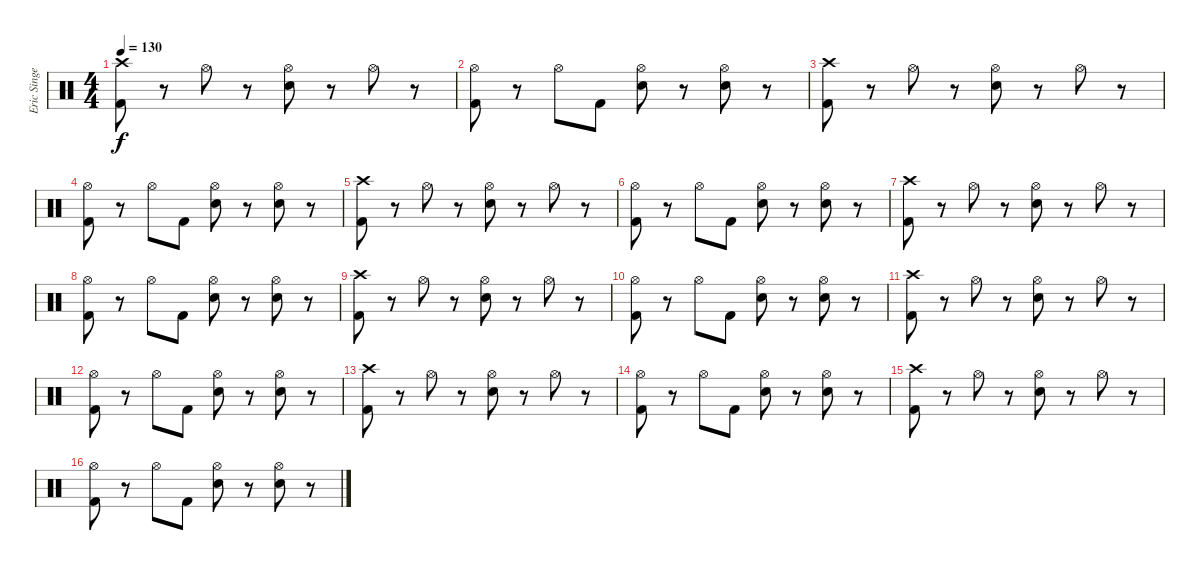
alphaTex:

\track ("Eric Singer" "Eric Singe") {instrument percussion}
\staff {score}
\articulation defaults
\ts (4 4)
\tempo 130
\clef neutral
\ks c
("Kick (hit) 2" "Crash high (hit)").8{dy f} r.8 "Hi-Hat (open)".8 r.8 ("Electric Snare (hit)" "Hi-Hat (open)").8 r.8 "Hi-Hat (open)".8 r.8 |
("Kick (hit) 2" "Hi-Hat (open)").8 r.8 "Hi-Hat (open)".8 "Kick (hit) 2".8 ("Electric Snare (hit)" "Hi-Hat (open)").8 r.8 ("Electric Snare (hit)" "Hi-Hat (open)").8 r.8 |
("Kick (hit) 2" "Crash high (hit)").8 r.8 "Hi-Hat (open)".8 r.8 ("Electric Snare (hit)" "Hi-Hat (open)").8 r.8 "Hi-Hat (open)".8 r.8 |
("Kick (hit) 2" "Hi-Hat (open)").8 r.8 "Hi-Hat (open)".8 "Kick (hit) 2".8 ("Electric Snare (hit)" "Hi-Hat (open)").8 r.8 ("Electric Snare (hit)" "Hi-Hat (open)").8 r.8 |
("Kick (hit) 2" "Crash high (hit)").8 r.8 "Hi-Hat (open)".8 r.8 ("Electric Snare (hit)" "Hi-Hat (open)").8 r.8 "Hi-Hat (open)".8 r.8 |
("Kick (hit) 2" "Hi-Hat (open)").8 r.8 "Hi-Hat (open)".8 "Kick (hit) 2".8 ("Electric Snare (hit)" "Hi-Hat (open)").8 r.8 ("Electric Snare (hit)" "Hi-Hat (open)").8 r.8 |
("Kick (hit) 2" "Crash high (hit)").8 r.8 "Hi-Hat (open)".8 r.8 ("Electric Snare (hit)" "Hi-Hat (open)").8 r.8 "Hi-Hat (open)".8 r.8 |
("Kick (hit) 2" "Hi-Hat (open)").8 r.8 "Hi-Hat (open)".8 "Kick (hit) 2".8 ("Electric Snare (hit)" "Hi-Hat (open)").8 r.8 ("Electric Snare (hit)" "Hi-Hat (open)").8 r.8 |
("Kick (hit) 2" "Crash high (hit)").8 r.8 "Hi-Hat (open)".8 r.8 ("Electric Snare (hit)" "Hi-Hat (open)").8 r.8 "Hi-Hat (open)".8 r.8 |
("Kick (hit) 2" "Hi-Hat (open)").8 r.8 "Hi-Hat (open)".8 "Kick (hit) 2".8 ("Electric Snare (hit)" "Hi-Hat (open)").8 r.8 ("Electric Snare (hit)" "Hi-Hat (open)").8 r.8 |
("Kick (hit) 2" "Crash high (hit)").8 r.8 "Hi-Hat (open)".8 r.8 ("Electric Snare (hit)" "Hi-Hat (open)").8 r.8 "Hi-Hat (open)".8 r.8 |
("Kick (hit) 2" "Hi-Hat (open)").8 r.8 "Hi-Hat (open)".8 "Kick (hit) 2".8 ("Electric Snare (hit)" "Hi-Hat (open)").8 r.8 ("Electric Snare (hit)" "Hi-Hat (open)").8 r.8 |
("Kick (hit) 2" "Crash high (hit)").8 r.8 "Hi-Hat (open)".8 r.8 ("Electric Snare (hit)" "Hi-Hat (open)").8 r.8 "Hi-Hat (open)".8 r.8 |
("Kick (hit) 2" "Hi-Hat (open)").8 r.8 "Hi-Hat (open)".8 "Kick (hit) 2".8 ("Electric Snare (hit)" "Hi-Hat (open)").8 r.8 ("Electric Snare (hit)" "Hi-Hat (open)").8 r.8 |
("Kick (hit) 2" "Crash high (hit)").8 r.8 "Hi-Hat (open)".8 r.8 ("Electric Snare (hit)" "Hi-Hat (open)").8 r.8 "Hi-Hat (open)".8 r.8 |
("Kick (hit) 2" "Hi-Hat (open)").8 r.8 "Hi-Hat (open)".8 "Kick (hit) 2".8 ("Electric Snare (hit)" "Hi-Hat (open)").8 r.8 ("Electric Snare (hit)" "Hi-Hat (open)").8 r.8
